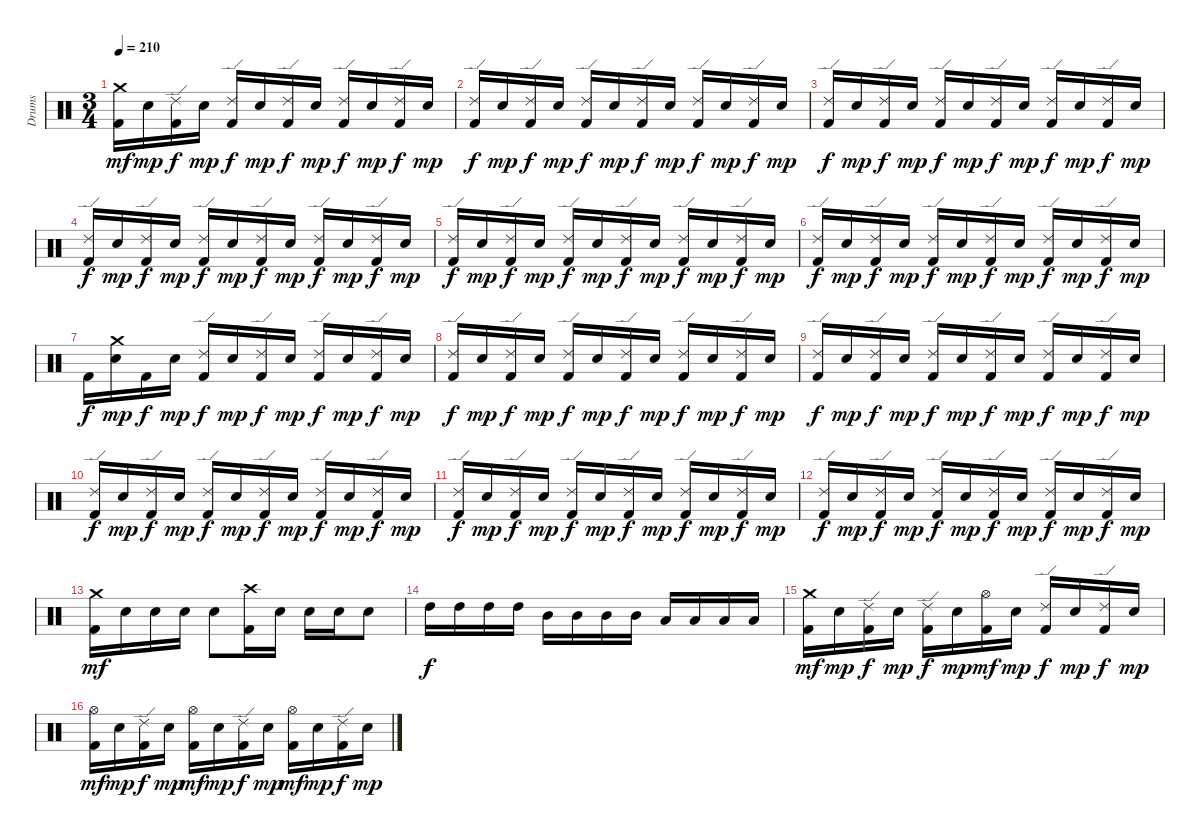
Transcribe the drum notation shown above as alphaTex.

\track ("Drums" "Drums") {instrument percussion}
\staff {score}
\articulation defaults
\ts (3 4)
\tempo 210
\clef neutral
\ks c
("Crash medium (hit)" "Kick (hit) 2").16{dy mf} "Electric Snare (hit)".16{dy mp} ("Ride (edge) 2" "Kick (hit) 2").16{dy f} "Electric Snare (hit)".16{dy mp} ("Ride (edge) 2" "Kick (hit) 2").16{dy f} "Electric Snare (hit)".16{dy mp} ("Ride (edge) 2" "Kick (hit) 2").16{dy f} "Electric Snare (hit)".16{dy mp} ("Ride (edge) 2" "Kick (hit) 2").16{dy f} "Electric Snare (hit)".16{dy mp} ("Ride (edge) 2" "Kick (hit) 2").16{dy f} "Electric Snare (hit)".16{dy mp} |
("Ride (edge) 2" "Kick (hit) 2").16{dy f} "Electric Snare (hit)".16{dy mp} ("Ride (edge) 2" "Kick (hit) 2").16{dy f} "Electric Snare (hit)".16{dy mp} ("Ride (edge) 2" "Kick (hit) 2").16{dy f} "Electric Snare (hit)".16{dy mp} ("Ride (edge) 2" "Kick (hit) 2").16{dy f} "Electric Snare (hit)".16{dy mp} ("Ride (edge) 2" "Kick (hit) 2").16{dy f} "Electric Snare (hit)".16{dy mp} ("Ride (edge) 2" "Kick (hit) 2").16{dy f} "Electric Snare (hit)".16{dy mp} |
("Ride (edge) 2" "Kick (hit) 2").16{dy f} "Electric Snare (hit)".16{dy mp} ("Ride (edge) 2" "Kick (hit) 2").16{dy f} "Electric Snare (hit)".16{dy mp} ("Ride (edge) 2" "Kick (hit) 2").16{dy f} "Electric Snare (hit)".16{dy mp} ("Ride (edge) 2" "Kick (hit) 2").16{dy f} "Electric Snare (hit)".16{dy mp} ("Ride (edge) 2" "Kick (hit) 2").16{dy f} "Electric Snare (hit)".16{dy mp} ("Ride (edge) 2" "Kick (hit) 2").16{dy f} "Electric Snare (hit)".16{dy mp} |
("Ride (edge) 2" "Kick (hit) 2").16{dy f} "Electric Snare (hit)".16{dy mp} ("Ride (edge) 2" "Kick (hit) 2").16{dy f} "Electric Snare (hit)".16{dy mp} ("Ride (edge) 2" "Kick (hit) 2").16{dy f} "Electric Snare (hit)".16{dy mp} ("Ride (edge) 2" "Kick (hit) 2").16{dy f} "Electric Snare (hit)".16{dy mp} ("Ride (edge) 2" "Kick (hit) 2").16{dy f} "Electric Snare (hit)".16{dy mp} ("Ride (edge) 2" "Kick (hit) 2").16{dy f} "Electric Snare (hit)".16{dy mp} |
("Ride (edge) 2" "Kick (hit) 2").16{dy f} "Electric Snare (hit)".16{dy mp} ("Ride (edge) 2" "Kick (hit) 2").16{dy f} "Electric Snare (hit)".16{dy mp} ("Ride (edge) 2" "Kick (hit) 2").16{dy f} "Electric Snare (hit)".16{dy mp} ("Ride (edge) 2" "Kick (hit) 2").16{dy f} "Electric Snare (hit)".16{dy mp} ("Ride (edge) 2" "Kick (hit) 2").16{dy f} "Electric Snare (hit)".16{dy mp} ("Ride (edge) 2" "Kick (hit) 2").16{dy f} "Electric Snare (hit)".16{dy mp} |
("Ride (edge) 2" "Kick (hit) 2").16{dy f} "Electric Snare (hit)".16{dy mp} ("Ride (edge) 2" "Kick (hit) 2").16{dy f} "Electric Snare (hit)".16{dy mp} ("Ride (edge) 2" "Kick (hit) 2").16{dy f} "Electric Snare (hit)".16{dy mp} ("Ride (edge) 2" "Kick (hit) 2").16{dy f} "Electric Snare (hit)".16{dy mp} ("Ride (edge) 2" "Kick (hit) 2").16{dy f} "Electric Snare (hit)".16{dy mp} ("Ride (edge) 2" "Kick (hit) 2").16{dy f} "Electric Snare (hit)".16{dy mp} |
"Kick (hit) 2".16{dy f} ("Crash medium (hit)" "Electric Snare (hit)").16{dy mp} "Kick (hit) 2".16{dy f} "Electric Snare (hit)".16{dy mp} ("Ride (edge) 2" "Kick (hit) 2").16{dy f} "Electric Snare (hit)".16{dy mp} ("Ride (edge) 2" "Kick (hit) 2").16{dy f} "Electric Snare (hit)".16{dy mp} ("Ride (edge) 2" "Kick (hit) 2").16{dy f} "Electric Snare (hit)".16{dy mp} ("Ride (edge) 2" "Kick (hit) 2").16{dy f} "Electric Snare (hit)".16{dy mp} |
("Ride (edge) 2" "Kick (hit) 2").16{dy f} "Electric Snare (hit)".16{dy mp} ("Ride (edge) 2" "Kick (hit) 2").16{dy f} "Electric Snare (hit)".16{dy mp} ("Ride (edge) 2" "Kick (hit) 2").16{dy f} "Electric Snare (hit)".16{dy mp} ("Ride (edge) 2" "Kick (hit) 2").16{dy f} "Electric Snare (hit)".16{dy mp} ("Ride (edge) 2" "Kick (hit) 2").16{dy f} "Electric Snare (hit)".16{dy mp} ("Ride (edge) 2" "Kick (hit) 2").16{dy f} "Electric Snare (hit)".16{dy mp} |
("Ride (edge) 2" "Kick (hit) 2").16{dy f} "Electric Snare (hit)".16{dy mp} ("Ride (edge) 2" "Kick (hit) 2").16{dy f} "Electric Snare (hit)".16{dy mp} ("Ride (edge) 2" "Kick (hit) 2").16{dy f} "Electric Snare (hit)".16{dy mp} ("Ride (edge) 2" "Kick (hit) 2").16{dy f} "Electric Snare (hit)".16{dy mp} ("Ride (edge) 2" "Kick (hit) 2").16{dy f} "Electric Snare (hit)".16{dy mp} ("Ride (edge) 2" "Kick (hit) 2").16{dy f} "Electric Snare (hit)".16{dy mp} |
("Ride (edge) 2" "Kick (hit) 2").16{dy f} "Electric Snare (hit)".16{dy mp} ("Ride (edge) 2" "Kick (hit) 2").16{dy f} "Electric Snare (hit)".16{dy mp} ("Ride (edge) 2" "Kick (hit) 2").16{dy f} "Electric Snare (hit)".16{dy mp} ("Ride (edge) 2" "Kick (hit) 2").16{dy f} "Electric Snare (hit)".16{dy mp} ("Ride (edge) 2" "Kick (hit) 2").16{dy f} "Electric Snare (hit)".16{dy mp} ("Ride (edge) 2" "Kick (hit) 2").16{dy f} "Electric Snare (hit)".16{dy mp} |
("Ride (edge) 2" "Kick (hit) 2").16{dy f} "Electric Snare (hit)".16{dy mp} ("Ride (edge) 2" "Kick (hit) 2").16{dy f} "Electric Snare (hit)".16{dy mp} ("Ride (edge) 2" "Kick (hit) 2").16{dy f} "Electric Snare (hit)".16{dy mp} ("Ride (edge) 2" "Kick (hit) 2").16{dy f} "Electric Snare (hit)".16{dy mp} ("Ride (edge) 2" "Kick (hit) 2").16{dy f} "Electric Snare (hit)".16{dy mp} ("Ride (edge) 2" "Kick (hit) 2").16{dy f} "Electric Snare (hit)".16{dy mp} |
("Ride (edge) 2" "Kick (hit) 2").16{dy f} "Electric Snare (hit)".16{dy mp} ("Ride (edge) 2" "Kick (hit) 2").16{dy f} "Electric Snare (hit)".16{dy mp} ("Ride (edge) 2" "Kick (hit) 2").16{dy f} "Electric Snare (hit)".16{dy mp} ("Ride (edge) 2" "Kick (hit) 2").16{dy f} "Electric Snare (hit)".16{dy mp} ("Ride (edge) 2" "Kick (hit) 2").16{dy f} "Electric Snare (hit)".16{dy mp} ("Ride (edge) 2" "Kick (hit) 2").16{dy f} "Electric Snare (hit)".16{dy mp} |
("Crash medium (hit)" "Kick (hit) 2").16{dy mf} "Electric Snare (hit)".16 "Electric Snare (hit)".16 "Electric Snare (hit)".16 "Electric Snare (hit)".8 ("Crash high (hit)" "Kick (hit) 2").16 "Electric Snare (hit)".16 "Electric Snare (hit)".16 "Electric Snare (hit)".16 "Electric Snare (hit)".8 |
"High Tom (hit)".16{dy f} "High Tom (hit)".16 "High Tom (hit)".16 "High Tom (hit)".16 "Mid Tom (hit)".16 "Mid Tom (hit)".16 "Mid Tom (hit)".16 "Mid Tom (hit)".16 "Low Tom (hit)".16 "Low Tom (hit)".16 "Low Tom (hit)".16 "Low Tom (hit)".16 |
("Crash medium (hit)" "Kick (hit) 2").16{dy mf} "Electric Snare (hit)".16{dy mp} ("Ride (edge) 2" "Kick (hit) 2").16{dy f} "Electric Snare (hit)".16{dy mp} ("Ride (edge) 2" "Kick (hit) 2").16{dy f} "Electric Snare (hit)".16{dy mp} ("Hi-Hat (open)" "Kick (hit) 2").16{dy mf} "Electric Snare (hit)".16{dy mp} ("Ride (edge) 2" "Kick (hit) 2").16{dy f} "Electric Snare (hit)".16{dy mp} ("Ride (edge) 2" "Kick (hit) 2").16{dy f} "Electric Snare (hit)".16{dy mp} |
("Hi-Hat (open)" "Kick (hit) 2").16{dy mf} "Electric Snare (hit)".16{dy mp} ("Ride (edge) 2" "Kick (hit) 2").16{dy f} "Electric Snare (hit)".16{dy mp} ("Hi-Hat (open)" "Kick (hit) 2").16{dy mf} "Electric Snare (hit)".16{dy mp} ("Ride (edge) 2" "Kick (hit) 2").16{dy f} "Electric Snare (hit)".16{dy mp} ("Hi-Hat (open)" "Kick (hit) 2").16{dy mf} "Electric Snare (hit)".16{dy mp} ("Ride (edge) 2" "Kick (hit) 2").16{dy f} "Electric Snare (hit)".16{dy mp}
